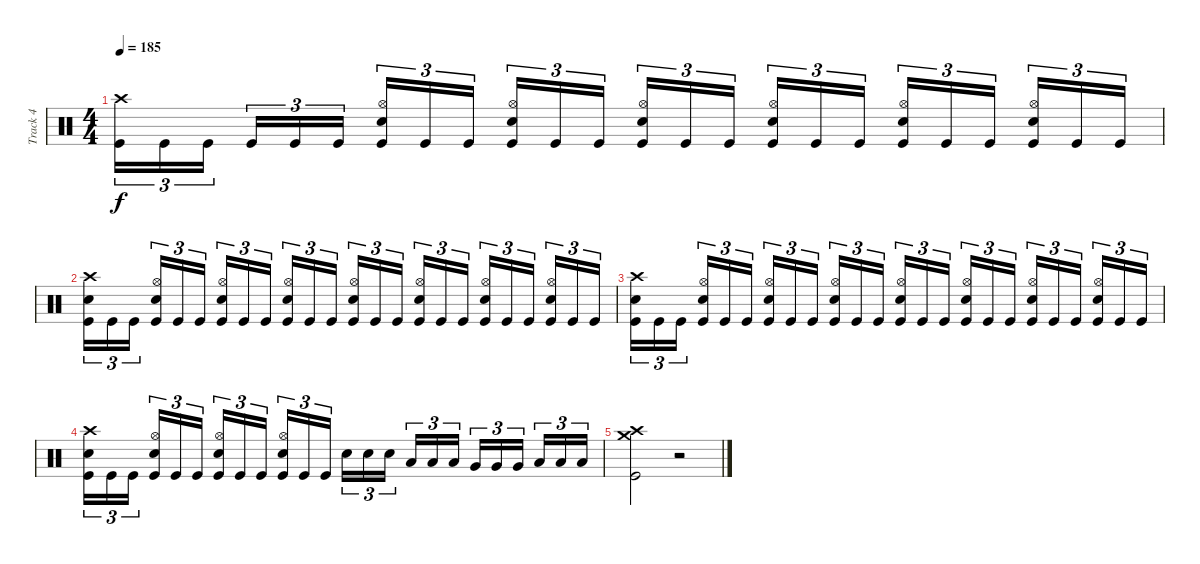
\track ("Track 4" "Track 4") {instrument percussion}
\staff {score}
\articulation defaults
\ts (4 4)
\tempo 185
\clef neutral
\ks c
("Crash high (hit)" "Kick (hit)").16{tu (3 2) dy f} "Kick (hit)".16{tu (3 2)} "Kick (hit)".16{tu (3 2)} "Kick (hit)".16{tu (3 2)} "Kick (hit)".16{tu (3 2)} "Kick (hit)".16{tu (3 2)} ("Hi-Hat (open)" "Electric Snare (hit)" "Kick (hit)").16{tu (3 2)} "Kick (hit)".16{tu (3 2)} "Kick (hit)".16{tu (3 2)} ("Hi-Hat (open)" "Electric Snare (hit)" "Kick (hit)").16{tu (3 2)} "Kick (hit)".16{tu (3 2)} "Kick (hit)".16{tu (3 2)} ("Hi-Hat (open)" "Electric Snare (hit)" "Kick (hit)").16{tu (3 2)} "Kick (hit)".16{tu (3 2)} "Kick (hit)".16{tu (3 2)} ("Hi-Hat (open)" "Electric Snare (hit)" "Kick (hit)").16{tu (3 2)} "Kick (hit)".16{tu (3 2)} "Kick (hit)".16{tu (3 2)} ("Hi-Hat (open)" "Electric Snare (hit)" "Kick (hit)").16{tu (3 2)} "Kick (hit)".16{tu (3 2)} "Kick (hit)".16{tu (3 2)} ("Hi-Hat (open)" "Electric Snare (hit)" "Kick (hit)").16{tu (3 2)} "Kick (hit)".16{tu (3 2)} "Kick (hit)".16{tu (3 2)} |
("Crash high (hit)" "Electric Snare (hit)" "Kick (hit)").16{tu (3 2)} "Kick (hit)".16{tu (3 2)} "Kick (hit)".16{tu (3 2)} ("Hi-Hat (open)" "Electric Snare (hit)" "Kick (hit)").16{tu (3 2)} "Kick (hit)".16{tu (3 2)} "Kick (hit)".16{tu (3 2)} ("Hi-Hat (open)" "Electric Snare (hit)" "Kick (hit)").16{tu (3 2)} "Kick (hit)".16{tu (3 2)} "Kick (hit)".16{tu (3 2)} ("Hi-Hat (open)" "Electric Snare (hit)" "Kick (hit)").16{tu (3 2)} "Kick (hit)".16{tu (3 2)} "Kick (hit)".16{tu (3 2)} ("Hi-Hat (open)" "Electric Snare (hit)" "Kick (hit)").16{tu (3 2)} "Kick (hit)".16{tu (3 2)} "Kick (hit)".16{tu (3 2)} ("Hi-Hat (open)" "Electric Snare (hit)" "Kick (hit)").16{tu (3 2)} "Kick (hit)".16{tu (3 2)} "Kick (hit)".16{tu (3 2)} ("Hi-Hat (open)" "Electric Snare (hit)" "Kick (hit)").16{tu (3 2)} "Kick (hit)".16{tu (3 2)} "Kick (hit)".16{tu (3 2)} ("Hi-Hat (open)" "Electric Snare (hit)" "Kick (hit)").16{tu (3 2)} "Kick (hit)".16{tu (3 2)} "Kick (hit)".16{tu (3 2)} |
("Crash high (hit)" "Electric Snare (hit)" "Kick (hit)").16{tu (3 2)} "Kick (hit)".16{tu (3 2)} "Kick (hit)".16{tu (3 2)} ("Hi-Hat (open)" "Electric Snare (hit)" "Kick (hit)").16{tu (3 2)} "Kick (hit)".16{tu (3 2)} "Kick (hit)".16{tu (3 2)} ("Hi-Hat (open)" "Electric Snare (hit)" "Kick (hit)").16{tu (3 2)} "Kick (hit)".16{tu (3 2)} "Kick (hit)".16{tu (3 2)} ("Hi-Hat (open)" "Electric Snare (hit)" "Kick (hit)").16{tu (3 2)} "Kick (hit)".16{tu (3 2)} "Kick (hit)".16{tu (3 2)} ("Hi-Hat (open)" "Electric Snare (hit)" "Kick (hit)").16{tu (3 2)} "Kick (hit)".16{tu (3 2)} "Kick (hit)".16{tu (3 2)} ("Hi-Hat (open)" "Electric Snare (hit)" "Kick (hit)").16{tu (3 2)} "Kick (hit)".16{tu (3 2)} "Kick (hit)".16{tu (3 2)} ("Hi-Hat (open)" "Electric Snare (hit)" "Kick (hit)").16{tu (3 2)} "Kick (hit)".16{tu (3 2)} "Kick (hit)".16{tu (3 2)} ("Hi-Hat (open)" "Electric Snare (hit)" "Kick (hit)").16{tu (3 2)} "Kick (hit)".16{tu (3 2)} "Kick (hit)".16{tu (3 2)} |
("Crash high (hit)" "Electric Snare (hit)" "Kick (hit)").16{tu (3 2)} "Kick (hit)".16{tu (3 2)} "Kick (hit)".16{tu (3 2)} ("Hi-Hat (open)" "Electric Snare (hit)" "Kick (hit)").16{tu (3 2)} "Kick (hit)".16{tu (3 2)} "Kick (hit)".16{tu (3 2)} ("Hi-Hat (open)" "Electric Snare (hit)" "Kick (hit)").16{tu (3 2)} "Kick (hit)".16{tu (3 2)} "Kick (hit)".16{tu (3 2)} ("Hi-Hat (open)" "Electric Snare (hit)" "Kick (hit)").16{tu (3 2)} "Kick (hit)".16{tu (3 2)} "Kick (hit)".16{tu (3 2)} "Electric Snare (hit)".16{tu (3 2)} "Electric Snare (hit)".16{tu (3 2)} "Electric Snare (hit)".16{tu (3 2)} "Low Tom (hit)".16{tu (3 2)} "Low Tom (hit)".16{tu (3 2)} "Low Tom (hit)".16{tu (3 2)} "Very Low Tom (hit)".16{tu (3 2)} "Very Low Tom (hit)".16{tu (3 2)} "Very Low Tom (hit)".16{tu (3 2)} "Low Floor Tom (hit)".16{tu (3 2)} "Low Floor Tom (hit)".16{tu (3 2)} "Low Floor Tom (hit)".16{tu (3 2)} |
("Crash high (hit)" "Crash medium (hit)" "Kick (hit)").2 r.2
